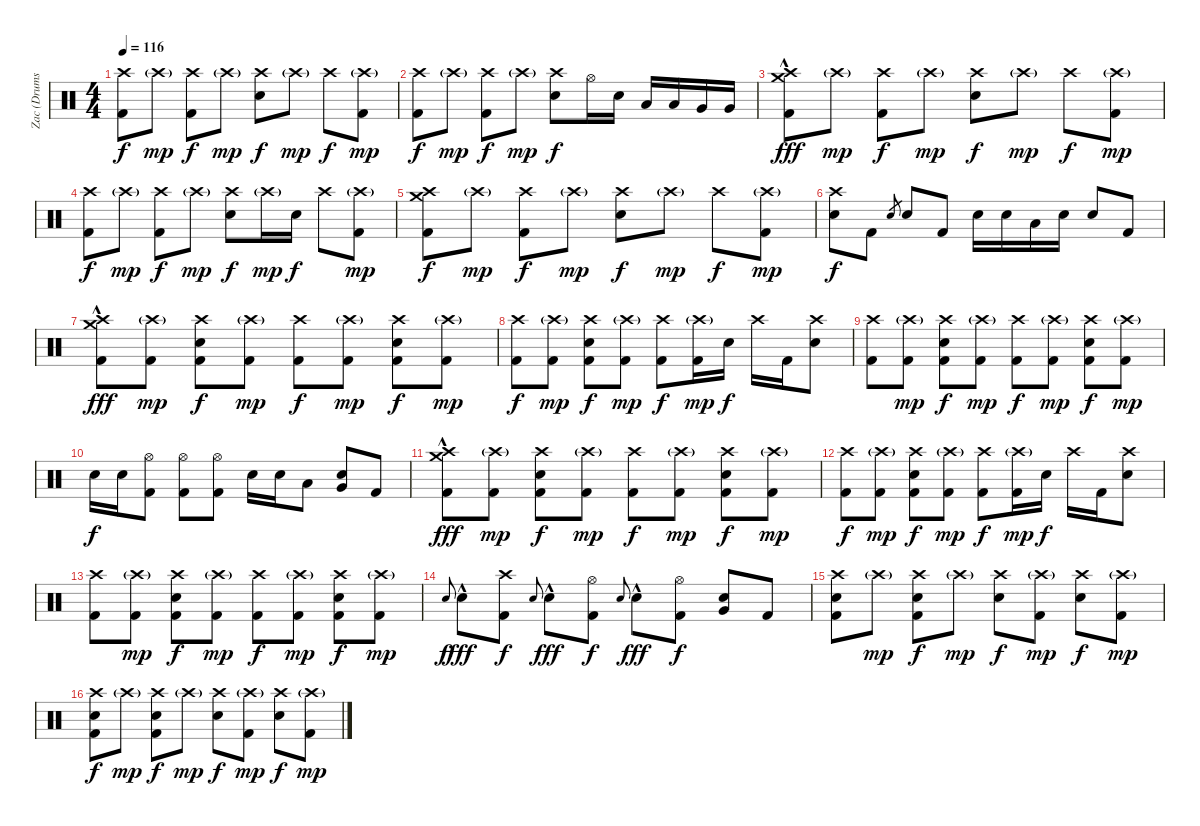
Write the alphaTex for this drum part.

\track ("Zac (Drums)" "Zac (Drums") {instrument percussion}
\staff {score}
\articulation defaults
\ts (4 4)
\tempo 116
\clef neutral
\ks c
("Crash high (hit)" "Kick (hit) 2").8{dy f} "Crash high (hit)"{g}.8{dy mp} ("Crash high (hit)" "Kick (hit) 2").8{dy f} "Crash high (hit)"{g}.8{dy mp} ("Crash high (hit)" "Electric Snare (hit)").8{dy f} "Crash high (hit)"{g}.8{dy mp} "Crash high (hit)".8{dy f} ("Crash high (hit)"{g} "Kick (hit) 2").8{dy mp} |
("Crash high (hit)" "Kick (hit) 2").8{dy f} "Crash high (hit)"{g}.8{dy mp} ("Crash high (hit)" "Kick (hit) 2").8{dy f} "Crash high (hit)"{g}.8{dy mp} ("Crash high (hit)" "Electric Snare (hit)").8{dy f} "Hi-Hat (open)".16 "Electric Snare (hit)".16 "Low Tom (hit)".16 "Low Tom (hit)".16 "Very Low Tom (hit)".16 "Very Low Tom (hit)".16 |
("Crash high (hit)"{hac} "Crash medium (hit)" "Kick (hit) 2").8{dy fff} "Crash high (hit)"{g}.8{dy mp} ("Crash high (hit)" "Kick (hit) 2").8{dy f} "Crash high (hit)"{g}.8{dy mp} ("Crash high (hit)" "Electric Snare (hit)").8{dy f} "Crash high (hit)"{g}.8{dy mp} "Crash high (hit)".8{dy f} ("Crash high (hit)"{g} "Kick (hit) 2").8{dy mp} |
("Crash high (hit)" "Kick (hit) 2").8{dy f} "Crash high (hit)"{g}.8{dy mp} ("Crash high (hit)" "Kick (hit) 2").8{dy f} "Crash high (hit)"{g}.8{dy mp} ("Crash high (hit)" "Electric Snare (hit)").8{dy f} "Crash high (hit)"{g}.16{dy mp} "Electric Snare (hit)".16{dy f} "Crash high (hit)".8 ("Crash high (hit)"{g} "Kick (hit) 2").8{dy mp} |
("Crash high (hit)" "Crash medium (hit)" "Kick (hit) 2").8{dy f} "Crash high (hit)"{g}.8{dy mp} ("Crash high (hit)" "Kick (hit) 2").8{dy f} "Crash high (hit)"{g}.8{dy mp} ("Crash high (hit)" "Electric Snare (hit)").8{dy f} "Crash high (hit)"{g}.8{dy mp} "Crash high (hit)".8{dy f} ("Crash high (hit)"{g} "Kick (hit) 2").8{dy mp} |
("Crash high (hit)" "Electric Snare (hit)").8{dy f} "Kick (hit) 2".8 "Electric Snare (hit)".8{gr} "Electric Snare (hit)".8 "Kick (hit) 2".8 "Electric Snare (hit)".16 "Electric Snare (hit)".16 "Low Tom (hit)".16 "Electric Snare (hit)".16 "Electric Snare (hit)".8 "Kick (hit) 2".8 |
("Crash high (hit)"{hac} "Crash medium (hit)" "Kick (hit) 2").8{dy fff} ("Crash high (hit)"{g} "Kick (hit) 2").8{dy mp} ("Crash high (hit)" "Electric Snare (hit)" "Kick (hit) 2").8{dy f} ("Crash high (hit)"{g} "Kick (hit) 2").8{dy mp} ("Crash high (hit)" "Kick (hit) 2").8{dy f} ("Crash high (hit)"{g} "Kick (hit) 2").8{dy mp} ("Crash high (hit)" "Electric Snare (hit)" "Kick (hit) 2").8{dy f} ("Crash high (hit)"{g} "Kick (hit) 2").8{dy mp} |
("Crash high (hit)" "Kick (hit) 2").8{dy f} ("Crash high (hit)"{g} "Kick (hit) 2").8{dy mp} ("Crash high (hit)" "Electric Snare (hit)" "Kick (hit) 2").8{dy f} ("Crash high (hit)"{g} "Kick (hit) 2").8{dy mp} ("Crash high (hit)" "Kick (hit) 2").8{dy f} ("Crash high (hit)"{g} "Kick (hit) 2").16{dy mp} "Electric Snare (hit)".16{dy f} "Crash high (hit)".16 "Kick (hit) 2".16 ("Crash high (hit)" "Electric Snare (hit)").8 |
("Crash high (hit)" "Kick (hit) 2").8 ("Crash high (hit)"{g} "Kick (hit) 2").8{dy mp} ("Crash high (hit)" "Electric Snare (hit)" "Kick (hit) 2").8{dy f} ("Crash high (hit)"{g} "Kick (hit) 2").8{dy mp} ("Crash high (hit)" "Kick (hit) 2").8{dy f} ("Crash high (hit)"{g} "Kick (hit) 2").8{dy mp} ("Crash high (hit)" "Electric Snare (hit)" "Kick (hit) 2").8{dy f} ("Crash high (hit)"{g} "Kick (hit) 2").8{dy mp} |
"Electric Snare (hit)".16{dy f} "Electric Snare (hit)".16 ("Hi-Hat (open)" "Kick (hit) 2").8 ("Hi-Hat (open)" "Kick (hit) 2").8 ("Hi-Hat (open)" "Kick (hit) 2").8 "Electric Snare (hit)".16 "Electric Snare (hit)".16 "Low Tom (hit)".8 ("Electric Snare (hit)" "Very Low Tom (hit)").8 "Kick (hit) 2".8 |
("Crash high (hit)"{hac} "Crash medium (hit)" "Kick (hit) 2").8{dy fff} ("Crash high (hit)"{g} "Kick (hit) 2").8{dy mp} ("Crash high (hit)" "Electric Snare (hit)" "Kick (hit) 2").8{dy f} ("Crash high (hit)"{g} "Kick (hit) 2").8{dy mp} ("Crash high (hit)" "Kick (hit) 2").8{dy f} ("Crash high (hit)"{g} "Kick (hit) 2").8{dy mp} ("Crash high (hit)" "Electric Snare (hit)" "Kick (hit) 2").8{dy f} ("Crash high (hit)"{g} "Kick (hit) 2").8{dy mp} |
("Crash high (hit)" "Kick (hit) 2").8{dy f} ("Crash high (hit)"{g} "Kick (hit) 2").8{dy mp} ("Crash high (hit)" "Electric Snare (hit)" "Kick (hit) 2").8{dy f} ("Crash high (hit)"{g} "Kick (hit) 2").8{dy mp} ("Crash high (hit)" "Kick (hit) 2").8{dy f} ("Crash high (hit)"{g} "Kick (hit) 2").16{dy mp} "Electric Snare (hit)".16{dy f} "Crash high (hit)".16 "Kick (hit) 2".16 ("Crash high (hit)" "Electric Snare (hit)").8 |
("Crash high (hit)" "Kick (hit) 2").8 ("Crash high (hit)"{g} "Kick (hit) 2").8{dy mp} ("Crash high (hit)" "Electric Snare (hit)" "Kick (hit) 2").8{dy f} ("Crash high (hit)"{g} "Kick (hit) 2").8{dy mp} ("Crash high (hit)" "Kick (hit) 2").8{dy f} ("Crash high (hit)"{g} "Kick (hit) 2").8{dy mp} ("Crash high (hit)" "Electric Snare (hit)" "Kick (hit) 2").8{dy f} ("Crash high (hit)"{g} "Kick (hit) 2").8{dy mp} |
"Electric Snare (hit)".8{gr onbeat dy f} "Electric Snare (hit)"{hac}.8{dy fff} ("Crash high (hit)" "Kick (hit) 2").8{dy f} "Electric Snare (hit)".8{gr onbeat} "Electric Snare (hit)"{hac}.8{dy fff} ("Hi-Hat (open)" "Kick (hit) 2").8{dy f} "Electric Snare (hit)".8{gr onbeat} "Electric Snare (hit)"{hac}.8{dy fff} ("Hi-Hat (open)" "Kick (hit) 2").8{dy f} ("Electric Snare (hit)" "Very Low Tom (hit)").8 "Kick (hit) 2".8 |
("Crash high (hit)" "Electric Snare (hit)" "Kick (hit) 2").8 "Crash high (hit)"{g}.8{dy mp} ("Crash high (hit)" "Electric Snare (hit)" "Kick (hit) 2").8{dy f} "Crash high (hit)"{g}.8{dy mp} ("Crash high (hit)" "Electric Snare (hit)").8{dy f} ("Crash high (hit)"{g} "Kick (hit) 2").8{dy mp} ("Crash high (hit)" "Electric Snare (hit)").8{dy f} ("Crash high (hit)"{g} "Kick (hit) 2").8{dy mp} |
("Crash high (hit)" "Electric Snare (hit)" "Kick (hit) 2").8{dy f} "Crash high (hit)"{g}.8{dy mp} ("Crash high (hit)" "Electric Snare (hit)" "Kick (hit) 2").8{dy f} "Crash high (hit)"{g}.8{dy mp} ("Crash high (hit)" "Electric Snare (hit)").8{dy f} ("Crash high (hit)"{g} "Kick (hit) 2").8{dy mp} ("Crash high (hit)" "Electric Snare (hit)").8{dy f} ("Crash high (hit)"{g} "Kick (hit) 2").8{dy mp}
